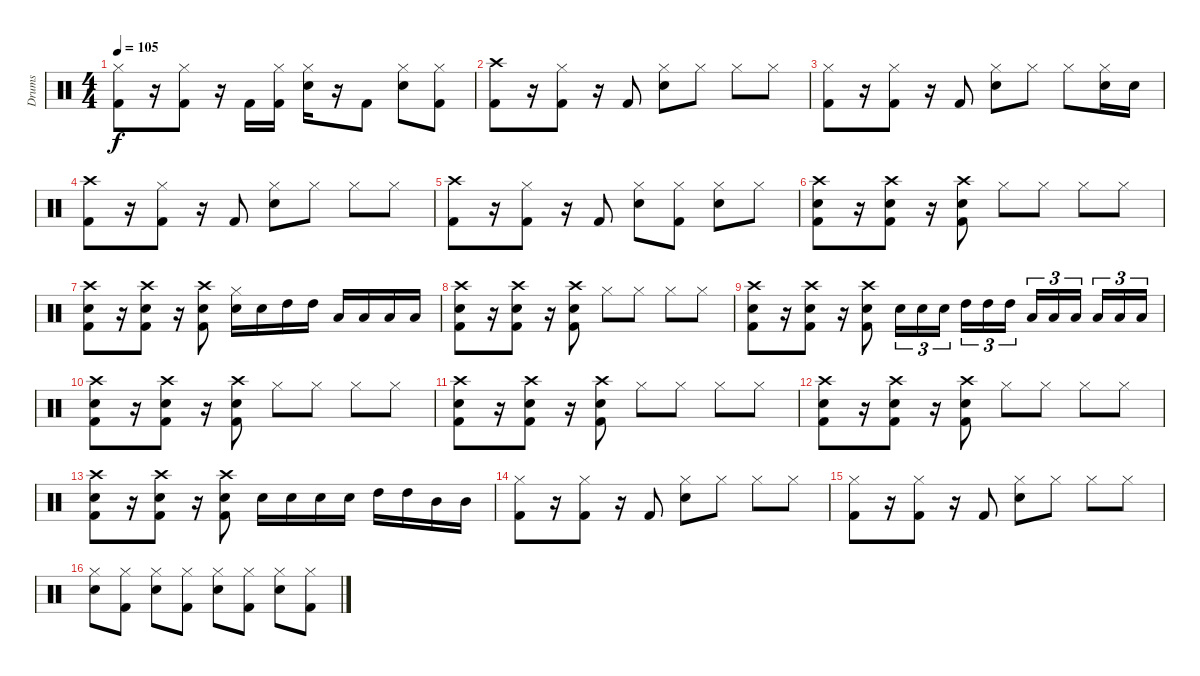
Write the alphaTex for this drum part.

\track ("Drums" "Drums") {instrument percussion}
\staff {score}
\articulation defaults
\ts (4 4)
\tempo 105
\clef neutral
\ks c
("Hi-Hat (closed)" "Kick (hit) 2").8{dy f} r.16 ("Hi-Hat (closed)" "Kick (hit) 2").8 r.16 "Kick (hit) 2".16 ("Hi-Hat (closed)" "Kick (hit) 2").16 ("Electric Snare (hit)" "Hi-Hat (closed)").16 r.16 "Kick (hit) 2".8 ("Hi-Hat (closed)" "Electric Snare (hit)").8 ("Hi-Hat (closed)" "Kick (hit) 2").8 |
("Crash high (hit)" "Kick (hit) 2").8 r.16 ("Hi-Hat (closed)" "Kick (hit) 2").8 r.16 "Kick (hit) 2".8 ("Hi-Hat (closed)" "Electric Snare (hit)").8 "Hi-Hat (closed)".8 "Hi-Hat (closed)".8 "Hi-Hat (closed)".8 |
("Hi-Hat (closed)" "Kick (hit) 2").8 r.16 ("Hi-Hat (closed)" "Kick (hit) 2").8 r.16 "Kick (hit) 2".8 ("Hi-Hat (closed)" "Electric Snare (hit)").8 "Hi-Hat (closed)".8 "Hi-Hat (closed)".8 ("Hi-Hat (closed)" "Electric Snare (hit)").16 "Electric Snare (hit)".16 |
("Crash high (hit)" "Kick (hit) 2").8 r.16 ("Hi-Hat (closed)" "Kick (hit) 2").8 r.16 "Kick (hit) 2".8 ("Hi-Hat (closed)" "Electric Snare (hit)").8 "Hi-Hat (closed)".8 "Hi-Hat (closed)".8 "Hi-Hat (closed)".8 |
("Crash high (hit)" "Kick (hit) 2").8 r.16 ("Hi-Hat (closed)" "Kick (hit) 2").8 r.16 "Kick (hit) 2".8 ("Hi-Hat (closed)" "Electric Snare (hit)").8 ("Hi-Hat (closed)" "Kick (hit) 2").8 ("Hi-Hat (closed)" "Electric Snare (hit)").8 "Hi-Hat (closed)".8 |
("Crash high (hit)" "Kick (hit) 2" "Electric Snare (hit)").8 r.16 ("Crash high (hit)" "Kick (hit) 2" "Electric Snare (hit)").8 r.16 ("Crash high (hit)" "Electric Snare (hit)" "Kick (hit) 2").8 "Hi-Hat (closed)".8 "Hi-Hat (closed)".8 "Hi-Hat (closed)".8 "Hi-Hat (closed)".8 |
("Crash high (hit)" "Kick (hit) 2" "Electric Snare (hit)").8 r.16 ("Crash high (hit)" "Kick (hit) 2" "Electric Snare (hit)").8 r.16 ("Crash high (hit)" "Kick (hit) 2" "Electric Snare (hit)").8 ("Hi-Hat (closed)" "Electric Snare (hit)").16 "Electric Snare (hit)".16 "High Tom (hit)".16 "High Tom (hit)".16 "Low Tom (hit)".16 "Low Tom (hit)".16 "Low Floor Tom (hit)".16 "Low Floor Tom (hit)".16 |
("Crash high (hit)" "Kick (hit) 2" "Electric Snare (hit)").8 r.16 ("Crash high (hit)" "Kick (hit) 2" "Electric Snare (hit)").8 r.16 ("Crash high (hit)" "Electric Snare (hit)" "Kick (hit) 2").8 "Hi-Hat (closed)".8 "Hi-Hat (closed)".8 "Hi-Hat (closed)".8 "Hi-Hat (closed)".8 |
("Crash high (hit)" "Kick (hit) 2" "Electric Snare (hit)").8 r.16 ("Crash high (hit)" "Kick (hit) 2" "Electric Snare (hit)").8 r.16 ("Kick (hit) 2" "Crash high (hit)" "Electric Snare (hit)").8 "Electric Snare (hit)".16{tu (3 2)} "Electric Snare (hit)".16{tu (3 2)} "Electric Snare (hit)".16{tu (3 2) beam splitsecondary} "High Tom (hit)".16{tu (3 2)} "High Tom (hit)".16{tu (3 2)} "High Tom (hit)".16{tu (3 2)} "Low Tom (hit)".16{tu (3 2)} "Low Tom (hit)".16{tu (3 2)} "Low Tom (hit)".16{tu (3 2) beam splitsecondary} "Low Floor Tom (hit)".16{tu (3 2)} "Low Floor Tom (hit)".16{tu (3 2)} "Low Floor Tom (hit)".16{tu (3 2)} |
("Crash high (hit)" "Kick (hit) 2" "Electric Snare (hit)").8 r.16 ("Crash high (hit)" "Kick (hit) 2" "Electric Snare (hit)").8 r.16 ("Crash high (hit)" "Electric Snare (hit)" "Kick (hit) 2").8 "Hi-Hat (closed)".8 "Hi-Hat (closed)".8 "Hi-Hat (closed)".8 "Hi-Hat (closed)".8 |
("Crash high (hit)" "Kick (hit) 2" "Electric Snare (hit)").8 r.16 ("Crash high (hit)" "Kick (hit) 2" "Electric Snare (hit)").8 r.16 ("Crash high (hit)" "Electric Snare (hit)" "Kick (hit) 2").8 "Hi-Hat (closed)".8 "Hi-Hat (closed)".8 "Hi-Hat (closed)".8 "Hi-Hat (closed)".8 |
("Crash high (hit)" "Kick (hit) 2" "Electric Snare (hit)").8 r.16 ("Crash high (hit)" "Kick (hit) 2" "Electric Snare (hit)").8 r.16 ("Crash high (hit)" "Electric Snare (hit)" "Kick (hit) 2").8 "Hi-Hat (closed)".8 "Hi-Hat (closed)".8 "Hi-Hat (closed)".8 "Hi-Hat (closed)".8 |
("Crash high (hit)" "Kick (hit) 2" "Electric Snare (hit)").8 r.16 ("Crash high (hit)" "Kick (hit) 2" "Electric Snare (hit)").8 r.16 ("Crash high (hit)" "Electric Snare (hit)" "Kick (hit) 2").8 "Electric Snare (hit)".16 "Electric Snare (hit)".16 "Electric Snare (hit)".16 "Electric Snare (hit)".16 "High Tom (hit)".16 "High Tom (hit)".16 "Mid Tom (hit)".16 "Mid Tom (hit)".16 |
("Hi-Hat (closed)" "Kick (hit) 2").8 r.16 ("Hi-Hat (closed)" "Kick (hit) 2").8 r.16 "Kick (hit) 2".8 ("Hi-Hat (closed)" "Electric Snare (hit)").8 "Hi-Hat (closed)".8 "Hi-Hat (closed)".8 "Hi-Hat (closed)".8 |
("Hi-Hat (closed)" "Kick (hit) 2").8 r.16 ("Hi-Hat (closed)" "Kick (hit) 2").8 r.16 "Kick (hit) 2".8 ("Hi-Hat (closed)" "Electric Snare (hit)").8 "Hi-Hat (closed)".8 "Hi-Hat (closed)".8 "Hi-Hat (closed)".8 |
("Electric Snare (hit)" "Hi-Hat (closed)").8 ("Kick (hit) 2" "Hi-Hat (closed)").8 ("Electric Snare (hit)" "Hi-Hat (closed)").8 ("Kick (hit) 2" "Hi-Hat (closed)").8 ("Electric Snare (hit)" "Hi-Hat (closed)").8 ("Kick (hit) 2" "Hi-Hat (closed)").8 ("Electric Snare (hit)" "Hi-Hat (closed)").8 ("Kick (hit) 2" "Hi-Hat (closed)").8
